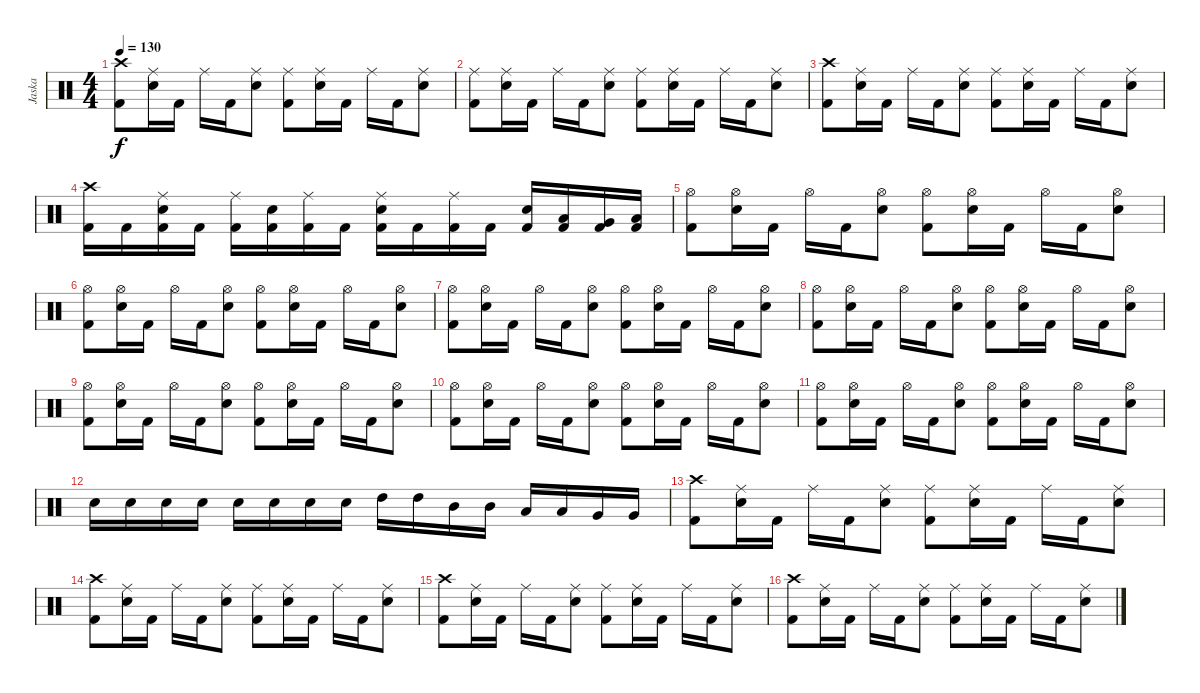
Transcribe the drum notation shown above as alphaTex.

\track ("Jaska " "Jaska ") {instrument percussion}
\staff {score}
\articulation defaults
\ts (4 4)
\tempo 130
\clef neutral
\ks c
("Crash high (hit)" "Kick (hit) 2").8{dy f} ("Ride (middle)" "Electric Snare (hit)").16 "Kick (hit) 2".16 "Ride (middle)".16 "Kick (hit) 2".16 ("Ride (middle)" "Electric Snare (hit)").8 ("Ride (middle)" "Kick (hit) 2").8 ("Ride (middle)" "Electric Snare (hit)").16 "Kick (hit) 2".16 "Ride (middle)".16 "Kick (hit) 2".16 ("Ride (middle)" "Electric Snare (hit)").8 |
("Ride (middle)" "Kick (hit) 2").8 ("Ride (middle)" "Electric Snare (hit)").16 "Kick (hit) 2".16 "Ride (middle)".16 "Kick (hit) 2".16 ("Ride (middle)" "Electric Snare (hit)").8 ("Ride (middle)" "Kick (hit) 2").8 ("Ride (middle)" "Electric Snare (hit)").16 "Kick (hit) 2".16 "Ride (middle)".16 "Kick (hit) 2".16 ("Ride (middle)" "Electric Snare (hit)").8 |
("Crash high (hit)" "Kick (hit) 2").8 ("Ride (middle)" "Electric Snare (hit)").16 "Kick (hit) 2".16 "Ride (middle)".16 "Kick (hit) 2".16 ("Ride (middle)" "Electric Snare (hit)").8 ("Ride (middle)" "Kick (hit) 2").8 ("Ride (middle)" "Electric Snare (hit)").16 "Kick (hit) 2".16 "Ride (middle)".16 "Kick (hit) 2".16 ("Ride (middle)" "Electric Snare (hit)").8 |
("Crash high (hit)" "Kick (hit) 2").16 "Kick (hit) 2".16 ("Ride (middle)" "Electric Snare (hit)" "Kick (hit) 2").16 "Kick (hit) 2".16 ("Ride (middle)" "Kick (hit) 2").16 ("Electric Snare (hit)" "Kick (hit) 2").16 ("Ride (middle)" "Kick (hit) 2").16 "Kick (hit) 2".16 ("Ride (middle)" "Electric Snare (hit)" "Kick (hit) 2").16 "Kick (hit) 2".16 ("Ride (middle)" "Kick (hit) 2").16 "Kick (hit) 2".16 ("Electric Snare (hit)" "Kick (hit) 2").16 ("Low Tom (hit)" "Kick (hit) 2").16 ("Very Low Tom (hit)" "Kick (hit) 2").16 ("Low Floor Tom (hit)" "Kick (hit) 2").16 |
("Hi-Hat (open)" "Kick (hit) 2").8 ("Hi-Hat (open)" "Electric Snare (hit)").16 "Kick (hit) 2".16 "Hi-Hat (open)".16 "Kick (hit) 2".16 ("Hi-Hat (open)" "Electric Snare (hit)").8 ("Hi-Hat (open)" "Kick (hit) 2").8 ("Hi-Hat (open)" "Electric Snare (hit)").16 "Kick (hit) 2".16 "Hi-Hat (open)".16 "Kick (hit) 2".16 ("Hi-Hat (open)" "Electric Snare (hit)").8 |
("Hi-Hat (open)" "Kick (hit) 2").8 ("Hi-Hat (open)" "Electric Snare (hit)").16 "Kick (hit) 2".16 "Hi-Hat (open)".16 "Kick (hit) 2".16 ("Hi-Hat (open)" "Electric Snare (hit)").8 ("Hi-Hat (open)" "Kick (hit) 2").8 ("Hi-Hat (open)" "Electric Snare (hit)").16 "Kick (hit) 2".16 "Hi-Hat (open)".16 "Kick (hit) 2".16 ("Hi-Hat (open)" "Electric Snare (hit)").8 |
("Hi-Hat (open)" "Kick (hit) 2").8 ("Hi-Hat (open)" "Electric Snare (hit)").16 "Kick (hit) 2".16 "Hi-Hat (open)".16 "Kick (hit) 2".16 ("Hi-Hat (open)" "Electric Snare (hit)").8 ("Hi-Hat (open)" "Kick (hit) 2").8 ("Hi-Hat (open)" "Electric Snare (hit)").16 "Kick (hit) 2".16 "Hi-Hat (open)".16 "Kick (hit) 2".16 ("Hi-Hat (open)" "Electric Snare (hit)").8 |
("Hi-Hat (open)" "Kick (hit) 2").8 ("Hi-Hat (open)" "Electric Snare (hit)").16 "Kick (hit) 2".16 "Hi-Hat (open)".16 "Kick (hit) 2".16 ("Hi-Hat (open)" "Electric Snare (hit)").8 ("Hi-Hat (open)" "Kick (hit) 2").8 ("Hi-Hat (open)" "Electric Snare (hit)").16 "Kick (hit) 2".16 "Hi-Hat (open)".16 "Kick (hit) 2".16 ("Hi-Hat (open)" "Electric Snare (hit)").8 |
("Hi-Hat (open)" "Kick (hit) 2").8 ("Hi-Hat (open)" "Electric Snare (hit)").16 "Kick (hit) 2".16 "Hi-Hat (open)".16 "Kick (hit) 2".16 ("Hi-Hat (open)" "Electric Snare (hit)").8 ("Hi-Hat (open)" "Kick (hit) 2").8 ("Hi-Hat (open)" "Electric Snare (hit)").16 "Kick (hit) 2".16 "Hi-Hat (open)".16 "Kick (hit) 2".16 ("Hi-Hat (open)" "Electric Snare (hit)").8 |
("Hi-Hat (open)" "Kick (hit) 2").8 ("Hi-Hat (open)" "Electric Snare (hit)").16 "Kick (hit) 2".16 "Hi-Hat (open)".16 "Kick (hit) 2".16 ("Hi-Hat (open)" "Electric Snare (hit)").8 ("Hi-Hat (open)" "Kick (hit) 2").8 ("Hi-Hat (open)" "Electric Snare (hit)").16 "Kick (hit) 2".16 "Hi-Hat (open)".16 "Kick (hit) 2".16 ("Hi-Hat (open)" "Electric Snare (hit)").8 |
("Hi-Hat (open)" "Kick (hit) 2").8 ("Hi-Hat (open)" "Electric Snare (hit)").16 "Kick (hit) 2".16 "Hi-Hat (open)".16 "Kick (hit) 2".16 ("Hi-Hat (open)" "Electric Snare (hit)").8 ("Hi-Hat (open)" "Kick (hit) 2").8 ("Hi-Hat (open)" "Electric Snare (hit)").16 "Kick (hit) 2".16 "Hi-Hat (open)".16 "Kick (hit) 2".16 ("Hi-Hat (open)" "Electric Snare (hit)").8 |
"Electric Snare (hit)".16 "Electric Snare (hit)".16 "Electric Snare (hit)".16 "Electric Snare (hit)".16 "Electric Snare (hit)".16 "Electric Snare (hit)".16 "Electric Snare (hit)".16 "Electric Snare (hit)".16 "High Tom (hit)".16 "High Tom (hit)".16 "Mid Tom (hit)".16 "Mid Tom (hit)".16 "Low Tom (hit)".16 "Low Tom (hit)".16 "Very Low Tom (hit)".16 "Very Low Tom (hit)".16 |
("Crash high (hit)" "Kick (hit) 2").8 ("Ride (middle)" "Electric Snare (hit)").16 "Kick (hit) 2".16 "Ride (middle)".16 "Kick (hit) 2".16 ("Ride (middle)" "Electric Snare (hit)").8 ("Ride (middle)" "Kick (hit) 2").8 ("Ride (middle)" "Electric Snare (hit)").16 "Kick (hit) 2".16 "Ride (middle)".16 "Kick (hit) 2".16 ("Ride (middle)" "Electric Snare (hit)").8 |
("Crash high (hit)" "Kick (hit) 2").8 ("Ride (middle)" "Electric Snare (hit)").16 "Kick (hit) 2".16 "Ride (middle)".16 "Kick (hit) 2".16 ("Ride (middle)" "Electric Snare (hit)").8 ("Ride (middle)" "Kick (hit) 2").8 ("Ride (middle)" "Electric Snare (hit)").16 "Kick (hit) 2".16 "Ride (middle)".16 "Kick (hit) 2".16 ("Ride (middle)" "Electric Snare (hit)").8 |
("Crash high (hit)" "Kick (hit) 2").8 ("Ride (middle)" "Electric Snare (hit)").16 "Kick (hit) 2".16 "Ride (middle)".16 "Kick (hit) 2".16 ("Ride (middle)" "Electric Snare (hit)").8 ("Ride (middle)" "Kick (hit) 2").8 ("Ride (middle)" "Electric Snare (hit)").16 "Kick (hit) 2".16 "Ride (middle)".16 "Kick (hit) 2".16 ("Ride (middle)" "Electric Snare (hit)").8 |
("Crash high (hit)" "Kick (hit) 2").8 ("Ride (middle)" "Electric Snare (hit)").16 "Kick (hit) 2".16 "Ride (middle)".16 "Kick (hit) 2".16 ("Ride (middle)" "Electric Snare (hit)").8 ("Ride (middle)" "Kick (hit) 2").8 ("Ride (middle)" "Electric Snare (hit)").16 "Kick (hit) 2".16 "Ride (middle)".16 "Kick (hit) 2".16 ("Ride (middle)" "Electric Snare (hit)").8
